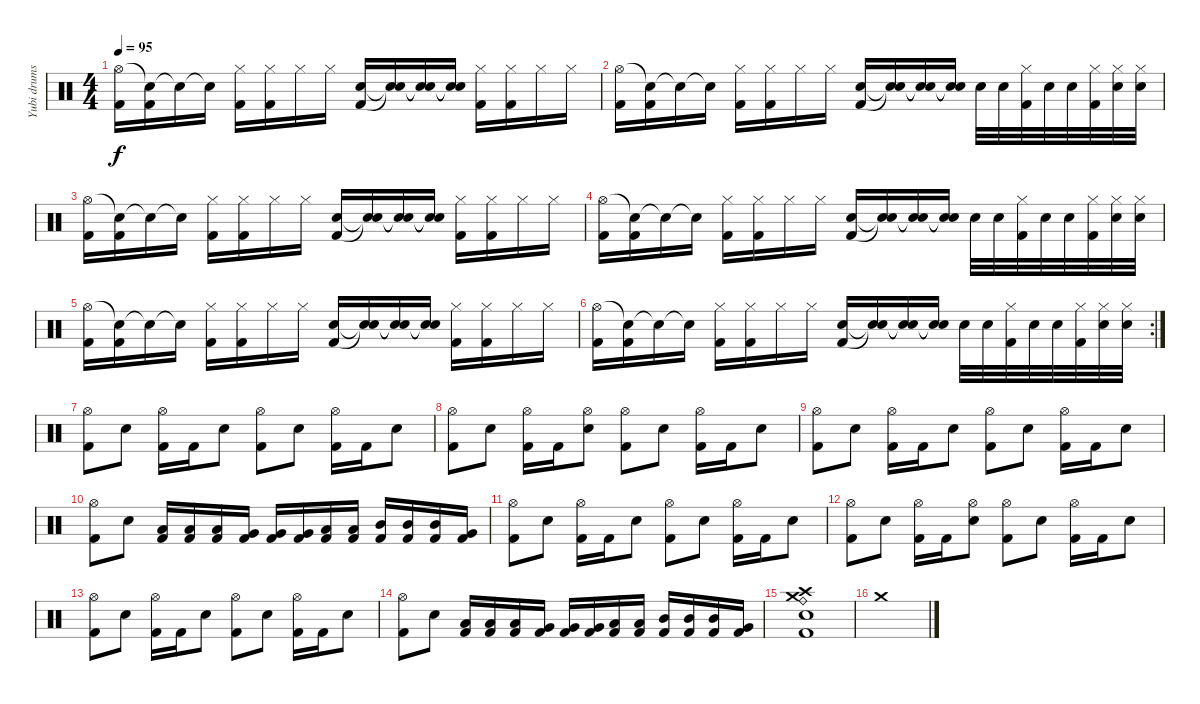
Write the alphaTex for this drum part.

\track ("Yubi drums" "Yubi drums") {instrument percussion}
\staff {score}
\articulation defaults
\ts (4 4)
\tempo 95
\clef neutral
\ks c
("Hi-Hat (open)" "Kick (hit) 2").16{dy f} ("Snare (hit)"{t} "Kick (hit) 2").16 "Snare (hit)"{t}.16 "Snare (hit)"{t}.16 ("Hi-Hat (closed)" "Kick (hit) 2").16 ("Hi-Hat (closed)" "Kick (hit) 2").16 "Hi-Hat (closed)".16 "Hi-Hat (closed)".16 ("Snare (hit) 2" "Kick (hit) 2").16 ("Snare (hit)"{t} "Snare (hit)"{t}).16 ("Snare (hit)"{t} "Snare (hit)"{t}).16 ("Snare (hit)"{t} "Snare (hit)"{t}).16 ("Hi-Hat (closed)" "Kick (hit) 2").16 ("Hi-Hat (closed)" "Kick (hit) 2").16 "Hi-Hat (closed)".16 "Hi-Hat (closed)".16 |
("Hi-Hat (open)" "Kick (hit) 2").16 ("Snare (hit)"{t} "Kick (hit) 2").16 "Snare (hit)"{t}.16 "Snare (hit)"{t}.16 ("Hi-Hat (closed)" "Kick (hit) 2").16 ("Hi-Hat (closed)" "Kick (hit) 2").16 "Hi-Hat (closed)".16 "Hi-Hat (closed)".16 ("Snare (hit) 2" "Kick (hit) 2").16 ("Snare (hit)"{t} "Snare (hit)"{t}).16 ("Snare (hit)"{t} "Snare (hit)"{t}).16 ("Snare (hit)"{t} "Snare (hit)"{t}).16 "Snare (hit) 2".32 "Snare (hit) 2".32 ("Hi-Hat (closed)" "Kick (hit) 2").32 "Snare (hit) 2".32 "Snare (hit) 2".32 ("Hi-Hat (closed)" "Kick (hit) 2").32 ("Hi-Hat (closed)" "Snare (hit) 2").32 ("Hi-Hat (closed)" "Snare (hit) 2").32 |
("Hi-Hat (open)" "Kick (hit) 2").16 ("Snare (hit)"{t} "Kick (hit) 2").16 "Snare (hit)"{t}.16 "Snare (hit)"{t}.16 ("Hi-Hat (closed)" "Kick (hit) 2").16 ("Hi-Hat (closed)" "Kick (hit) 2").16 "Hi-Hat (closed)".16 "Hi-Hat (closed)".16 ("Snare (hit) 2" "Kick (hit) 2").16 ("Snare (hit)"{t} "Snare (hit)"{t}).16 ("Snare (hit)"{t} "Snare (hit)"{t}).16 ("Snare (hit)"{t} "Snare (hit)"{t}).16 ("Hi-Hat (closed)" "Kick (hit) 2").16 ("Hi-Hat (closed)" "Kick (hit) 2").16 "Hi-Hat (closed)".16 "Hi-Hat (closed)".16 |
("Hi-Hat (open)" "Kick (hit) 2").16 ("Snare (hit)"{t} "Kick (hit) 2").16 "Snare (hit)"{t}.16 "Snare (hit)"{t}.16 ("Hi-Hat (closed)" "Kick (hit) 2").16 ("Hi-Hat (closed)" "Kick (hit) 2").16 "Hi-Hat (closed)".16 "Hi-Hat (closed)".16 ("Snare (hit) 2" "Kick (hit) 2").16 ("Snare (hit)"{t} "Snare (hit)"{t}).16 ("Snare (hit)"{t} "Snare (hit)"{t}).16 ("Snare (hit)"{t} "Snare (hit)"{t}).16 "Snare (hit) 2".32 "Snare (hit) 2".32 ("Hi-Hat (closed)" "Kick (hit) 2").32 "Snare (hit) 2".32 "Snare (hit) 2".32 ("Hi-Hat (closed)" "Kick (hit) 2").32 ("Hi-Hat (closed)" "Snare (hit) 2").32 ("Hi-Hat (closed)" "Snare (hit) 2").32 |
("Hi-Hat (open)" "Kick (hit) 2").16 ("Snare (hit)"{t} "Kick (hit) 2").16 "Snare (hit)"{t}.16 "Snare (hit)"{t}.16 ("Hi-Hat (closed)" "Kick (hit) 2").16 ("Hi-Hat (closed)" "Kick (hit) 2").16 "Hi-Hat (closed)".16 "Hi-Hat (closed)".16 ("Snare (hit) 2" "Kick (hit) 2").16 ("Snare (hit)"{t} "Snare (hit)"{t}).16 ("Snare (hit)"{t} "Snare (hit)"{t}).16 ("Snare (hit)"{t} "Snare (hit)"{t}).16 ("Hi-Hat (closed)" "Kick (hit) 2").16 ("Hi-Hat (closed)" "Kick (hit) 2").16 "Hi-Hat (closed)".16 "Hi-Hat (closed)".16 |
\rc 2
("Hi-Hat (open)" "Kick (hit) 2").16 ("Snare (hit)"{t} "Kick (hit) 2").16 "Snare (hit)"{t}.16 "Snare (hit)"{t}.16 ("Hi-Hat (closed)" "Kick (hit) 2").16 ("Hi-Hat (closed)" "Kick (hit) 2").16 "Hi-Hat (closed)".16 "Hi-Hat (closed)".16 ("Snare (hit) 2" "Kick (hit) 2").16 ("Snare (hit)"{t} "Snare (hit)"{t}).16 ("Snare (hit)"{t} "Snare (hit)"{t}).16 ("Snare (hit)"{t} "Snare (hit)"{t}).16 "Snare (hit) 2".32 "Snare (hit) 2".32 ("Hi-Hat (closed)" "Kick (hit) 2").32 "Snare (hit) 2".32 "Snare (hit) 2".32 ("Hi-Hat (closed)" "Kick (hit) 2").32 ("Hi-Hat (closed)" "Snare (hit) 2").32 ("Hi-Hat (closed)" "Snare (hit) 2").32 |
("Hi-Hat (open)" "Kick (hit) 2").8 "Snare (hit) 2".8 ("Hi-Hat (open)" "Kick (hit) 2").16 "Kick (hit) 2".16 "Snare (hit) 2".8 ("Hi-Hat (open)" "Kick (hit) 2").8 "Snare (hit) 2".8 ("Hi-Hat (open)" "Kick (hit) 2").16 "Kick (hit) 2".16 "Snare (hit) 2".8 |
("Hi-Hat (open)" "Kick (hit) 2").8 "Snare (hit) 2".8 ("Hi-Hat (open)" "Kick (hit) 2").16 "Kick (hit) 2".16 ("Hi-Hat (open)" "Snare (hit) 2").8 ("Hi-Hat (open)" "Kick (hit) 2").8 "Snare (hit) 2".8 ("Hi-Hat (open)" "Kick (hit) 2").16 "Kick (hit) 2".16 "Snare (hit) 2".8 |
("Hi-Hat (open)" "Kick (hit) 2").8 "Snare (hit) 2".8 ("Hi-Hat (open)" "Kick (hit) 2").16 "Kick (hit) 2".16 "Snare (hit) 2".8 ("Hi-Hat (open)" "Kick (hit) 2").8 "Snare (hit) 2".8 ("Hi-Hat (open)" "Kick (hit) 2").16 "Kick (hit) 2".16 "Snare (hit) 2".8 |
("Hi-Hat (open)" "Kick (hit) 2").8 "Snare (hit) 2".8 ("Low Tom (hit)" "Kick (hit) 2").16 ("Low Tom (hit)" "Kick (hit) 2").16 ("Low Tom (hit)" "Kick (hit) 2").16 ("Very Low Tom (hit)" "Kick (hit) 2").16 ("Very Low Tom (hit)" "Kick (hit) 2").16 ("Very Low Tom (hit)" "Kick (hit) 2").16 ("Low Tom (hit)" "Kick (hit) 2").16 ("Low Tom (hit)" "Kick (hit) 2").16 ("Mid Tom (hit)" "Kick (hit) 2").16 ("Mid Tom (hit)" "Kick (hit) 2").16 ("Mid Tom (hit)" "Kick (hit) 2").16 ("Very Low Tom (hit)" "Kick (hit) 2").16 |
("Hi-Hat (open)" "Kick (hit) 2").8 "Snare (hit) 2".8 ("Hi-Hat (open)" "Kick (hit) 2").16 "Kick (hit) 2".16 "Snare (hit) 2".8 ("Hi-Hat (open)" "Kick (hit) 2").8 "Snare (hit) 2".8 ("Hi-Hat (open)" "Kick (hit) 2").16 "Kick (hit) 2".16 "Snare (hit) 2".8 |
("Hi-Hat (open)" "Kick (hit) 2").8 "Snare (hit) 2".8 ("Hi-Hat (open)" "Kick (hit) 2").16 "Kick (hit) 2".16 ("Hi-Hat (open)" "Snare (hit) 2").8 ("Hi-Hat (open)" "Kick (hit) 2").8 "Snare (hit) 2".8 ("Hi-Hat (open)" "Kick (hit) 2").16 "Kick (hit) 2".16 "Snare (hit) 2".8 |
("Hi-Hat (open)" "Kick (hit) 2").8 "Snare (hit) 2".8 ("Hi-Hat (open)" "Kick (hit) 2").16 "Kick (hit) 2".16 "Snare (hit) 2".8 ("Hi-Hat (open)" "Kick (hit) 2").8 "Snare (hit) 2".8 ("Hi-Hat (open)" "Kick (hit) 2").16 "Kick (hit) 2".16 "Snare (hit) 2".8 |
("Hi-Hat (open)" "Kick (hit) 2").8 "Snare (hit) 2".8 ("Low Tom (hit)" "Kick (hit) 2").16 ("Low Tom (hit)" "Kick (hit) 2").16 ("Low Tom (hit)" "Kick (hit) 2").16 ("Very Low Tom (hit)" "Kick (hit) 2").16 ("Very Low Tom (hit)" "Kick (hit) 2").16 ("Very Low Tom (hit)" "Kick (hit) 2").16 ("Low Tom (hit)" "Kick (hit) 2").16 ("Low Tom (hit)" "Kick (hit) 2").16 ("Mid Tom (hit)" "Kick (hit) 2").16 ("Mid Tom (hit)" "Kick (hit) 2").16 ("Mid Tom (hit)" "Kick (hit) 2").16 ("Very Low Tom (hit)" "Kick (hit) 2").16 |
("Kick (hit) 2" "Crash medium (hit)" "Crash high (hit)" "Ride (bell)" "Snare (hit) 2").1 |
"Crash medium (hit)".1
